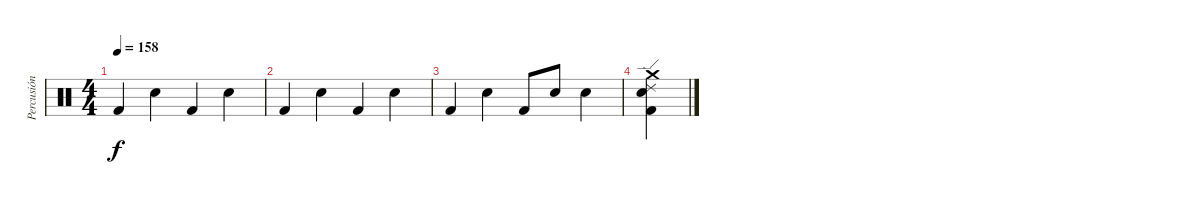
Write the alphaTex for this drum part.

\track ("Percusión" "Percusión") {instrument percussion}
\staff {score}
\articulation defaults
\ts (4 4)
\tempo 158
\clef neutral
\ks c "Kick (hit) 2".4{dy f} "Electric Snare (hit)".4 "Kick (hit) 2".4 "Electric Snare (hit)".4
|
"Kick (hit) 2".4{volume 16} "Electric Snare (hit)".4 "Kick (hit) 2".4 "Electric Snare (hit)".4 |
"Kick (hit) 2".4{volume 16} "Electric Snare (hit)".4 "Kick (hit) 2".8 "Electric Snare (hit)".8 "Electric Snare (hit)".4 |
("Ride (edge) 2" "Kick (hit) 2" "Crash medium (hit)" "Electric Snare (hit)").4
